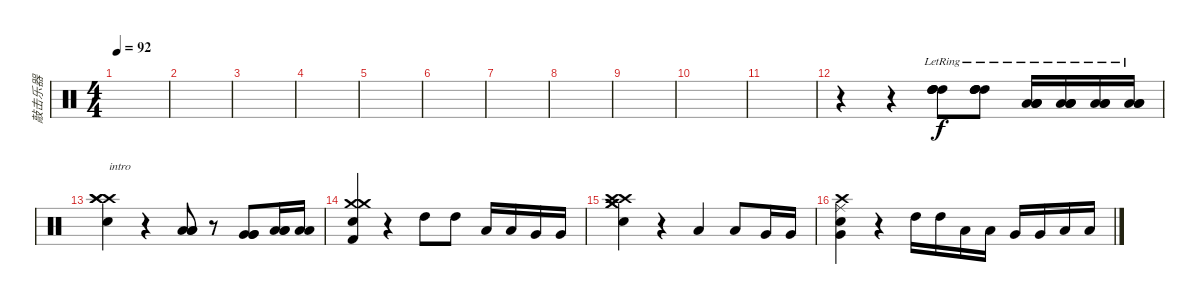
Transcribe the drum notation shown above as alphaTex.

\track ("敲击乐器" "敲击乐器") {instrument percussion}
\staff {score}
\articulation defaults
\ts (4 4)
\tempo 92
\clef neutral
\ks c
|
|
|
|
|
|
|
|
|
|
|
r.4 r.4 ("High Tom (hit)"{lr} "High Tom (hit)" "High Tom (hit)" "High Tom (hit)").8 ("High Tom (hit)"{lr} "High Tom (hit)" "High Tom (hit)" "High Tom (hit)").8 ("Low Tom (hit)"{lr} "Low Tom (hit)" "Low Tom (hit)" "Low Tom (hit)").16 ("Low Tom (hit)"{lr} "Low Tom (hit)" "Low Tom (hit)" "Low Tom (hit)").16 ("Low Floor Tom (hit)"{lr} "Low Floor Tom (hit)" "Low Floor Tom (hit)").16 ("Low Floor Tom (hit)"{lr} "Low Floor Tom (hit)" "Low Floor Tom (hit)").16 |
("Metronome (bell)" "Crash high (hit)" "Crash high (hit)" "Crash high (hit)").4{txt "intro" dy f} r.4 ("Low Tom (hit)" "Low Tom (hit)" "Low Tom (hit)").8 r.8 ("Very Low Tom (hit)" "Very Low Tom (hit)" "Very Low Tom (hit)").8 ("Low Floor Tom (hit)" "Low Floor Tom (hit)" "Low Floor Tom (hit)").16 ("Low Floor Tom (hit)" "Low Floor Tom (hit)").16 |
("Crash medium (hit)" "Kick (hit) 2" "Metronome (bell)" "Crash medium (hit)").4 r.4 "High Tom (hit)".8 "High Tom (hit)".8 "Low Tom (hit)".16 "Low Tom (hit)".16 "Very Low Tom (hit)".16 "Very Low Tom (hit)".16 |
("Crash high (hit)" "Crash medium (hit)" "Crash high (hit)" "Crash medium (hit)" "Metronome (bell)").4 r.4 "Low Tom (hit)".4 "Low Tom (hit)".8 "Very Low Tom (hit)".16 "Very Low Tom (hit)".16 |
("Crash high (hit)" "Ride (middle)" "Very Low Tom (hit)" "Metronome (bell)").4 r.4 "High Tom (hit)".16 "High Tom (hit)".16 "Low Tom (hit)".16 "Low Tom (hit)".16 "Very Low Tom (hit)".16 "Very Low Tom (hit)".16 "Low Floor Tom (hit)".16 "Low Floor Tom (hit)".16
